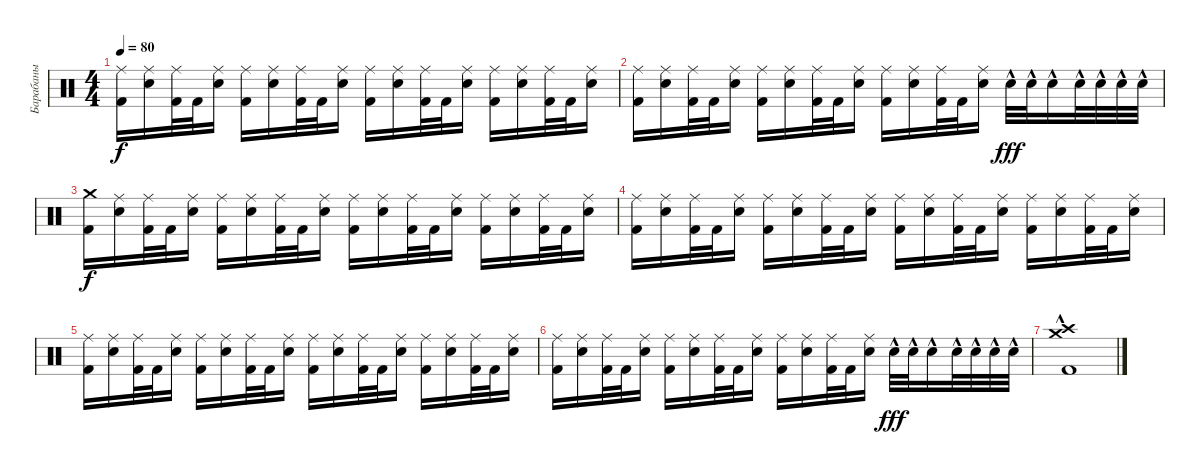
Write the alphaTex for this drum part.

\track ("Барабаны" "Барабаны") {instrument percussion}
\staff {score}
\articulation defaults
\ts (4 4)
\tempo 80
\clef neutral
\ks c
("Ride (middle)" "Kick (hit) 2").16{dy f} ("Ride (middle)" "Snare (hit) 2").16 ("Ride (middle)" "Kick (hit) 2").32 "Kick (hit) 2".32 ("Ride (middle)" "Snare (hit) 2").16 ("Ride (middle)" "Kick (hit) 2").16 ("Ride (middle)" "Snare (hit) 2").16 ("Ride (middle)" "Kick (hit) 2").32 "Kick (hit) 2".32 ("Ride (middle)" "Snare (hit) 2").16 ("Ride (middle)" "Kick (hit) 2").16 ("Ride (middle)" "Snare (hit) 2").16 ("Ride (middle)" "Kick (hit) 2").32 "Kick (hit) 2".32 ("Ride (middle)" "Snare (hit) 2").16 ("Ride (middle)" "Kick (hit) 2").16 ("Ride (middle)" "Snare (hit) 2").16 ("Ride (middle)" "Kick (hit) 2").32 "Kick (hit) 2".32 ("Ride (middle)" "Snare (hit) 2").16 |
("Ride (middle)" "Kick (hit) 2").16 ("Ride (middle)" "Snare (hit) 2").16 ("Ride (middle)" "Kick (hit) 2").32 "Kick (hit) 2".32 ("Ride (middle)" "Snare (hit) 2").16 ("Ride (middle)" "Kick (hit) 2").16 ("Ride (middle)" "Snare (hit) 2").16 ("Ride (middle)" "Kick (hit) 2").32 "Kick (hit) 2".32 ("Ride (middle)" "Snare (hit) 2").16 ("Ride (middle)" "Kick (hit) 2").16 ("Ride (middle)" "Snare (hit) 2").16 ("Ride (middle)" "Kick (hit) 2").32 "Kick (hit) 2".32 ("Ride (middle)" "Snare (hit) 2").16 "Snare (hit) 2"{hac}.32{dy fff} "Snare (hit) 2"{hac}.32 "Snare (hit) 2"{hac}.16 "Snare (hit) 2"{hac}.32 "Snare (hit) 2"{hac}.32 "Snare (hit) 2"{hac}.32 "Snare (hit) 2"{hac}.32 |
("Crash medium (hit)" "Kick (hit) 2").16{dy f} ("Ride (middle)" "Snare (hit) 2").16 ("Ride (middle)" "Kick (hit) 2").32 "Kick (hit) 2".32 ("Ride (middle)" "Snare (hit) 2").16 ("Ride (middle)" "Kick (hit) 2").16 ("Ride (middle)" "Snare (hit) 2").16 ("Ride (middle)" "Kick (hit) 2").32 "Kick (hit) 2".32 ("Ride (middle)" "Snare (hit) 2").16 ("Ride (middle)" "Kick (hit) 2").16 ("Ride (middle)" "Snare (hit) 2").16 ("Ride (middle)" "Kick (hit) 2").32 "Kick (hit) 2".32 ("Ride (middle)" "Snare (hit) 2").16 ("Ride (middle)" "Kick (hit) 2").16 ("Ride (middle)" "Snare (hit) 2").16 ("Ride (middle)" "Kick (hit) 2").32 "Kick (hit) 2".32 ("Ride (middle)" "Snare (hit) 2").16 |
("Ride (middle)" "Kick (hit) 2").16 ("Ride (middle)" "Snare (hit) 2").16 ("Ride (middle)" "Kick (hit) 2").32 "Kick (hit) 2".32 ("Ride (middle)" "Snare (hit) 2").16 ("Ride (middle)" "Kick (hit) 2").16 ("Ride (middle)" "Snare (hit) 2").16 ("Ride (middle)" "Kick (hit) 2").32 "Kick (hit) 2".32 ("Ride (middle)" "Snare (hit) 2").16 ("Ride (middle)" "Kick (hit) 2").16 ("Ride (middle)" "Snare (hit) 2").16 ("Ride (middle)" "Kick (hit) 2").32 "Kick (hit) 2".32 ("Ride (middle)" "Snare (hit) 2").16 ("Ride (middle)" "Kick (hit) 2").16 ("Ride (middle)" "Snare (hit) 2").16 ("Ride (middle)" "Kick (hit) 2").32 "Kick (hit) 2".32 ("Ride (middle)" "Snare (hit) 2").16 |
("Ride (middle)" "Kick (hit) 2").16 ("Ride (middle)" "Snare (hit) 2").16 ("Ride (middle)" "Kick (hit) 2").32 "Kick (hit) 2".32 ("Ride (middle)" "Snare (hit) 2").16 ("Ride (middle)" "Kick (hit) 2").16 ("Ride (middle)" "Snare (hit) 2").16 ("Ride (middle)" "Kick (hit) 2").32 "Kick (hit) 2".32 ("Ride (middle)" "Snare (hit) 2").16 ("Ride (middle)" "Kick (hit) 2").16 ("Ride (middle)" "Snare (hit) 2").16 ("Ride (middle)" "Kick (hit) 2").32 "Kick (hit) 2".32 ("Ride (middle)" "Snare (hit) 2").16 ("Ride (middle)" "Kick (hit) 2").16 ("Ride (middle)" "Snare (hit) 2").16 ("Ride (middle)" "Kick (hit) 2").32 "Kick (hit) 2".32 ("Ride (middle)" "Snare (hit) 2").16 |
("Ride (middle)" "Kick (hit) 2").16 ("Ride (middle)" "Snare (hit) 2").16 ("Ride (middle)" "Kick (hit) 2").32 "Kick (hit) 2".32 ("Ride (middle)" "Snare (hit) 2").16 ("Ride (middle)" "Kick (hit) 2").16 ("Ride (middle)" "Snare (hit) 2").16 ("Ride (middle)" "Kick (hit) 2").32 "Kick (hit) 2".32 ("Ride (middle)" "Snare (hit) 2").16 ("Ride (middle)" "Kick (hit) 2").16 ("Ride (middle)" "Snare (hit) 2").16 ("Ride (middle)" "Kick (hit) 2").32 "Kick (hit) 2".32 ("Ride (middle)" "Snare (hit) 2").16 "Snare (hit) 2"{hac}.32{dy fff} "Snare (hit) 2"{hac}.32 "Snare (hit) 2"{hac}.16 "Snare (hit) 2"{hac}.32 "Snare (hit) 2"{hac}.32 "Snare (hit) 2"{hac}.32 "Snare (hit) 2"{hac}.32 |
("Crash medium (hit)"{hac} "Crash high (hit)"{hac} "Kick (hit) 2"{hac}).1
